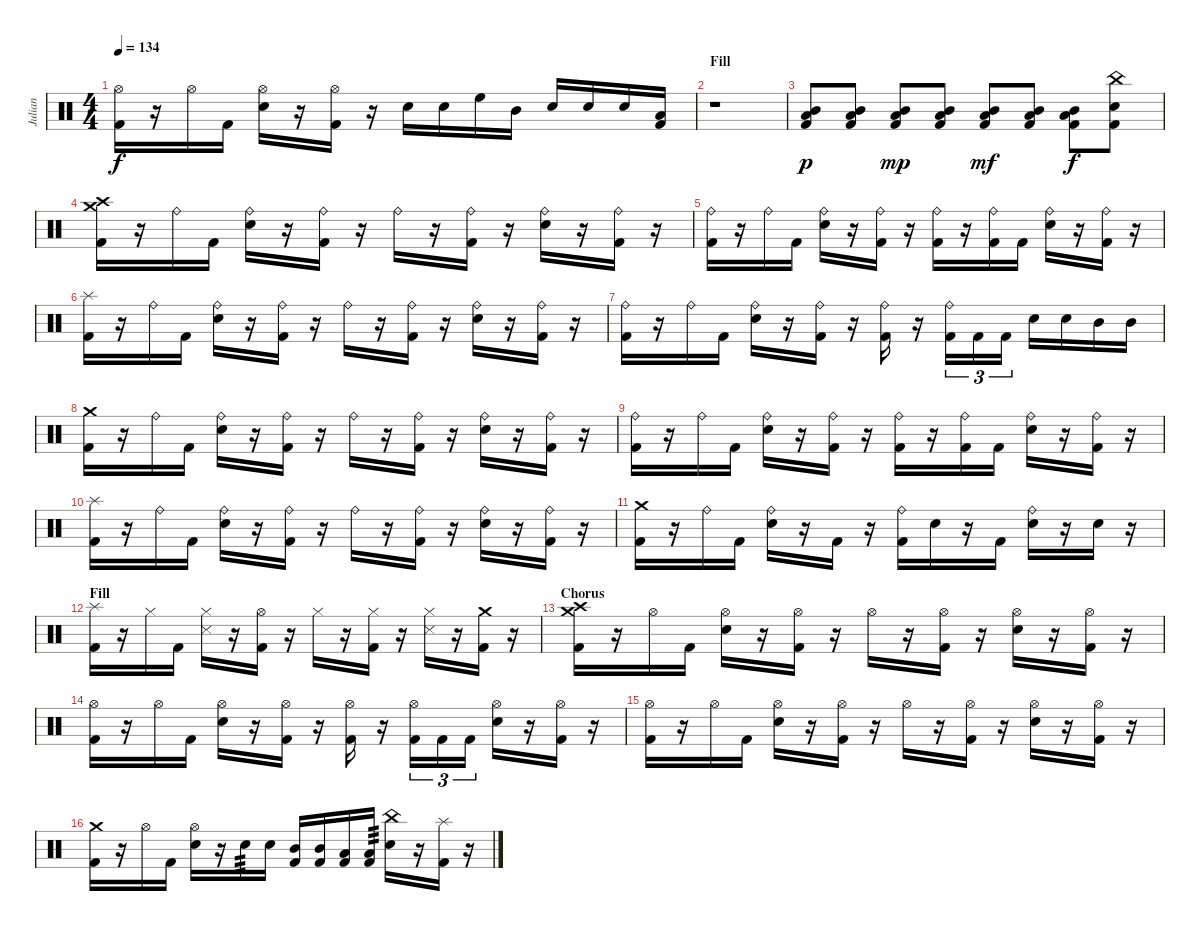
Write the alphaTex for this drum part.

\track ("Julian" "Julian") {instrument percussion}
\staff {score}
\articulation defaults
\ts (4 4)
\tempo 134
\clef neutral
\ks c
("Hi-Hat (open)" "Kick (hit) 2").16{dy f} r.16 "Hi-Hat (open)".16 "Kick (hit) 2".16 ("Hi-Hat (open)" "Electric Snare (hit)").16 r.16 ("Hi-Hat (open)" "Kick (hit) 2").16 r.16 "Electric Snare (hit)".16 "Electric Snare (hit)".16 "High Floor Tom (hit)".16 "Mid Tom (hit)".16 "Electric Snare (hit)".16 "Electric Snare (hit)".16 "Electric Snare (hit)".16 ("Low Tom (hit)" "Kick (hit) 2").16 |
\section ("" "Fill")
r.1 |
("Mid Tom (hit)" "Low Tom (hit)" "Kick (hit) 2").8{dy p} ("Mid Tom (hit)" "Low Tom (hit)" "Kick (hit) 2").8 ("Mid Tom (hit)" "Low Tom (hit)" "Kick (hit) 2").8{dy mp} ("Mid Tom (hit)" "Low Tom (hit)" "Kick (hit) 2").8 ("Mid Tom (hit)" "Low Tom (hit)" "Kick (hit) 2").8{dy mf} ("Mid Tom (hit)" "Low Tom (hit)" "Kick (hit) 2").8 ("Mid Tom (hit)" "Low Tom (hit)" "Kick (hit) 2").8{dy f} ("China (hit)" "Electric Snare (hit)" "Kick (hit) 2").8 |
("Crash high (hit)" "Crash medium (hit)" "Kick (hit) 2").16 r.16 "Ride (bell)".16 "Kick (hit) 2".16 ("Ride (bell)" "Electric Snare (hit)").16 r.16 ("Ride (bell)" "Kick (hit) 2").16 r.16 "Ride (bell)".16 r.16 ("Ride (bell)" "Kick (hit) 2").16 r.16 ("Ride (bell)" "Electric Snare (hit)").16 r.16 ("Ride (bell)" "Kick (hit) 2").16 r.16 |
("Ride (bell)" "Kick (hit) 2").16 r.16 "Ride (bell)".16 "Kick (hit) 2".16 ("Ride (bell)" "Electric Snare (hit)").16 r.16 ("Ride (bell)" "Kick (hit) 2").16 r.16 ("Ride (bell)" "Kick (hit) 2").16 r.16 ("Ride (bell)" "Kick (hit) 2").16 "Kick (hit) 2".16 ("Ride (bell)" "Electric Snare (hit)").16 r.16 ("Ride (bell)" "Kick (hit) 2").16 r.16 |
("Splash (hit)" "Kick (hit) 2").16 r.16 "Ride (bell)".16 "Kick (hit) 2".16 ("Ride (bell)" "Electric Snare (hit)").16 r.16 ("Ride (bell)" "Kick (hit) 2").16 r.16 "Ride (bell)".16 r.16 ("Ride (bell)" "Kick (hit) 2").16 r.16 ("Ride (bell)" "Electric Snare (hit)").16 r.16 ("Ride (bell)" "Kick (hit) 2").16 r.16 |
("Ride (bell)" "Kick (hit) 2").16 r.16 "Ride (bell)".16 "Kick (hit) 2".16 ("Ride (bell)" "Electric Snare (hit)").16 r.16 ("Ride (bell)" "Kick (hit) 2").16 r.16 ("Ride (bell)" "Kick (hit) 2").16 r.16 ("Ride (bell)" "Kick (hit) 2").16{tu (3 2)} "Kick (hit) 2".16{tu (3 2)} "Kick (hit) 2".16{tu (3 2)} "Electric Snare (hit)".16 "Electric Snare (hit)".16 "Mid Tom (hit)".16 "Mid Tom (hit)".16 |
("Crash medium (hit)" "Kick (hit) 2").16 r.16 "Ride (bell)".16 "Kick (hit) 2".16 ("Ride (bell)" "Electric Snare (hit)").16 r.16 ("Ride (bell)" "Kick (hit) 2").16 r.16 "Ride (bell)".16 r.16 ("Ride (bell)" "Kick (hit) 2").16 r.16 ("Ride (bell)" "Electric Snare (hit)").16 r.16 ("Ride (bell)" "Kick (hit) 2").16 r.16 |
("Ride (bell)" "Kick (hit) 2").16 r.16 "Ride (bell)".16 "Kick (hit) 2".16 ("Ride (bell)" "Electric Snare (hit)").16 r.16 ("Ride (bell)" "Kick (hit) 2").16 r.16 ("Ride (bell)" "Kick (hit) 2").16 r.16 ("Ride (bell)" "Kick (hit) 2").16 "Kick (hit) 2".16 ("Ride (bell)" "Electric Snare (hit)").16 r.16 ("Ride (bell)" "Kick (hit) 2").16 r.16 |
("Splash (hit)" "Kick (hit) 2").16 r.16 "Ride (bell)".16 "Kick (hit) 2".16 ("Ride (bell)" "Electric Snare (hit)").16 r.16 ("Ride (bell)" "Kick (hit) 2").16 r.16 "Ride (bell)".16 r.16 ("Ride (bell)" "Kick (hit) 2").16 r.16 ("Ride (bell)" "Electric Snare (hit)").16 r.16 ("Ride (bell)" "Kick (hit) 2").16 r.16 |
("Crash medium (hit)" "Kick (hit) 2").16 r.16 "Ride (bell)".16 "Kick (hit) 2".16 ("Ride (bell)" "Electric Snare (hit)").16 r.16 "Kick (hit) 2".16 r.16 ("Ride (bell)" "Kick (hit) 2").16 "Electric Snare (hit)".16 r.16 "Kick (hit) 2".16 ("Ride (bell)" "Electric Snare (hit)").16 r.16 "Electric Snare (hit)".16 r.16 |
\section ("" "Fill")
("Splash (hit)" "Kick (hit) 2").16 r.16 "Hi-Hat (closed)".16 "Kick (hit) 2".16 ("Hi-Hat (closed)" "Snare (side stick) 3").16 r.16 ("Hi-Hat (open)" "Kick (hit) 2").16 r.16 "Hi-Hat (closed)".16 r.16 ("Hi-Hat (closed)" "Kick (hit) 2").16 r.16 ("Hi-Hat (closed)" "Snare (side stick) 3").16 r.16 ("Crash medium (hit)" "Kick (hit) 2").16 r.16 |
\section ("" "Chorus")
("Crash high (hit)" "Crash medium (hit)" "Kick (hit) 2").16 r.16 "Hi-Hat (open)".16 "Kick (hit) 2".16 ("Hi-Hat (open)" "Electric Snare (hit)").16 r.16 ("Hi-Hat (open)" "Kick (hit) 2").16 r.16 "Hi-Hat (open)".16 r.16 ("Hi-Hat (open)" "Kick (hit) 2").16 r.16 ("Hi-Hat (open)" "Electric Snare (hit)").16 r.16 ("Hi-Hat (open)" "Kick (hit) 2").16 r.16 |
("Hi-Hat (open)" "Kick (hit) 2").16 r.16 "Hi-Hat (open)".16 "Kick (hit) 2".16 ("Hi-Hat (open)" "Electric Snare (hit)").16 r.16 ("Hi-Hat (open)" "Kick (hit) 2").16 r.16 ("Hi-Hat (open)" "Kick (hit) 2").16 r.16 ("Hi-Hat (open)" "Kick (hit) 2").16{tu (3 2)} "Kick (hit) 2".16{tu (3 2)} "Kick (hit) 2".16{tu (3 2)} ("Hi-Hat (open)" "Electric Snare (hit)").16 r.16 ("Hi-Hat (open)" "Kick (hit) 2").16 r.16 |
("Hi-Hat (open)" "Kick (hit) 2").16 r.16 "Hi-Hat (open)".16 "Kick (hit) 2".16 ("Hi-Hat (open)" "Electric Snare (hit)").16 r.16 ("Hi-Hat (open)" "Kick (hit) 2").16 r.16 "Hi-Hat (open)".16 r.16 ("Hi-Hat (open)" "Kick (hit) 2").16 r.16 ("Hi-Hat (open)" "Electric Snare (hit)").16 r.16 ("Hi-Hat (open)" "Kick (hit) 2").16 r.16 |
("Crash medium (hit)" "Kick (hit) 2").16 r.16 "Hi-Hat (open)".16 "Kick (hit) 2".16 ("Hi-Hat (open)" "Electric Snare (hit)").16 r.16 "Electric Snare (hit)".16{tp 3} "Electric Snare (hit)".16 ("Mid Tom (hit)" "Kick (hit) 2").16 ("Mid Tom (hit)" "Kick (hit) 2").16 ("Low Tom (hit)" "Kick (hit) 2").16 ("Low Tom (hit)" "Kick (hit) 2").16{tp 3} ("China (hit)" "Electric Snare (hit)").16 r.16 ("Splash (hit)" "Kick (hit) 2").16 r.16
